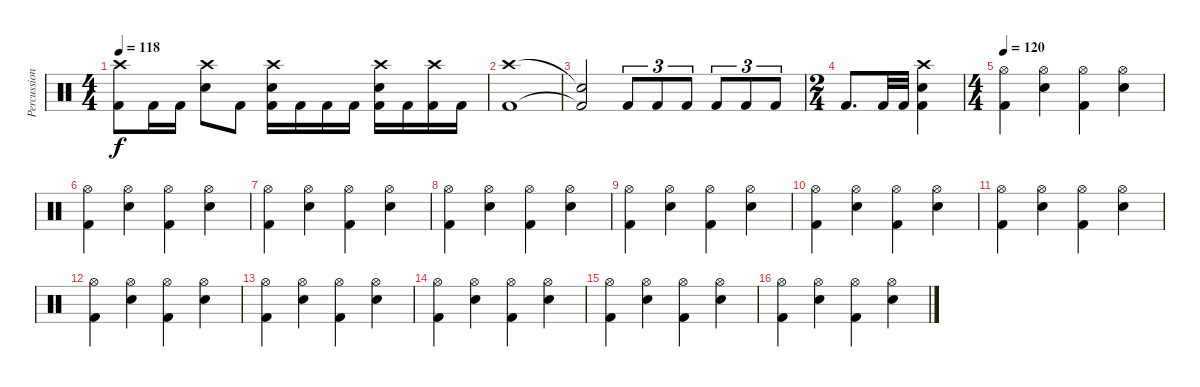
\track ("Percussions" "Percussion") {instrument percussion}
\staff {score}
\articulation defaults
\ts (4 4)
\tempo 118
\clef neutral
\ks c
("Crash high (hit)" "Kick (hit) 2").8{dy f} "Kick (hit) 2".16 "Kick (hit) 2".16 ("Crash high (hit)" "Snare (hit) 2").8 "Kick (hit) 2".8 ("Crash high (hit)" "Snare (hit) 2" "Kick (hit) 2").16 "Kick (hit) 2".16 "Kick (hit) 2".16 "Kick (hit) 2".16 ("Crash high (hit)" "Snare (hit) 2" "Kick (hit) 2").16 "Kick (hit) 2".16 ("Crash high (hit)" "Kick (hit) 2").16 "Kick (hit) 2".16 |
("Crash high (hit)" "Kick (hit) 2").1 |
("Snare (hit)"{t} "Kick (hit) 2"{t}).2 "Kick (hit) 2".8{tu (3 2)} "Kick (hit) 2".8{tu (3 2)} "Kick (hit) 2".8{tu (3 2)} "Kick (hit) 2".8{tu (3 2)} "Kick (hit) 2".8{tu (3 2)} "Kick (hit) 2".8{tu (3 2)} |
\ts (2 4)
"Kick (hit) 2".8{d} "Kick (hit) 2".32 "Kick (hit) 2".32 ("Crash high (hit)" "Snare (hit) 2" "Kick (hit) 2").4 |
\ts (4 4)
\tempo 120
("Hi-Hat (open)" "Kick (hit) 2").4 ("Hi-Hat (open)" "Snare (hit) 2").4 ("Hi-Hat (open)" "Kick (hit) 2").4 ("Hi-Hat (open)" "Snare (hit) 2").4 |
("Hi-Hat (open)" "Kick (hit) 2").4 ("Hi-Hat (open)" "Snare (hit) 2").4 ("Hi-Hat (open)" "Kick (hit) 2").4 ("Hi-Hat (open)" "Snare (hit) 2").4 |
("Hi-Hat (open)" "Kick (hit) 2").4 ("Hi-Hat (open)" "Snare (hit) 2").4 ("Hi-Hat (open)" "Kick (hit) 2").4 ("Hi-Hat (open)" "Snare (hit) 2").4 |
("Hi-Hat (open)" "Kick (hit) 2").4 ("Hi-Hat (open)" "Snare (hit) 2").4 ("Hi-Hat (open)" "Kick (hit) 2").4 ("Hi-Hat (open)" "Snare (hit) 2").4 |
("Hi-Hat (open)" "Kick (hit) 2").4 ("Hi-Hat (open)" "Snare (hit) 2").4 ("Hi-Hat (open)" "Kick (hit) 2").4 ("Hi-Hat (open)" "Snare (hit) 2").4 |
("Hi-Hat (open)" "Kick (hit) 2").4 ("Hi-Hat (open)" "Snare (hit) 2").4 ("Hi-Hat (open)" "Kick (hit) 2").4 ("Hi-Hat (open)" "Snare (hit) 2").4 |
("Hi-Hat (open)" "Kick (hit) 2").4 ("Hi-Hat (open)" "Snare (hit) 2").4 ("Hi-Hat (open)" "Kick (hit) 2").4 ("Hi-Hat (open)" "Snare (hit) 2").4 |
("Hi-Hat (open)" "Kick (hit) 2").4 ("Hi-Hat (open)" "Snare (hit) 2").4 ("Hi-Hat (open)" "Kick (hit) 2").4 ("Hi-Hat (open)" "Snare (hit) 2").4 |
("Hi-Hat (open)" "Kick (hit) 2").4 ("Hi-Hat (open)" "Snare (hit) 2").4 ("Hi-Hat (open)" "Kick (hit) 2").4 ("Hi-Hat (open)" "Snare (hit) 2").4 |
("Hi-Hat (open)" "Kick (hit) 2").4 ("Hi-Hat (open)" "Snare (hit) 2").4 ("Hi-Hat (open)" "Kick (hit) 2").4 ("Hi-Hat (open)" "Snare (hit) 2").4 |
("Hi-Hat (open)" "Kick (hit) 2").4 ("Hi-Hat (open)" "Snare (hit) 2").4 ("Hi-Hat (open)" "Kick (hit) 2").4 ("Hi-Hat (open)" "Snare (hit) 2").4 |
("Hi-Hat (open)" "Kick (hit) 2").4 ("Hi-Hat (open)" "Snare (hit) 2").4 ("Hi-Hat (open)" "Kick (hit) 2").4 ("Hi-Hat (open)" "Snare (hit) 2").4
